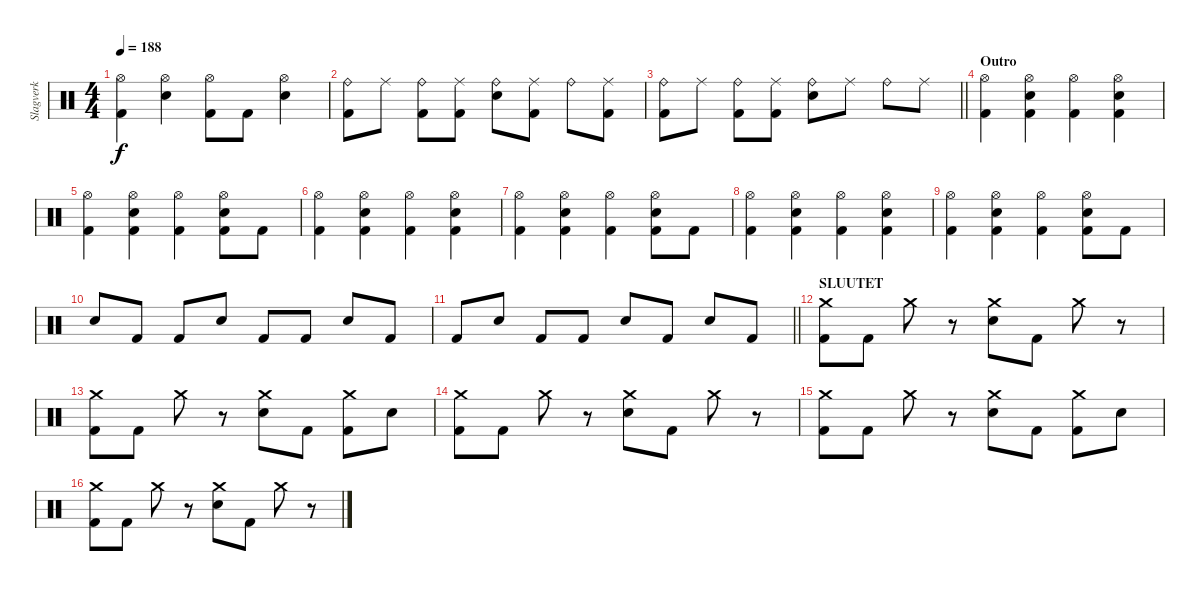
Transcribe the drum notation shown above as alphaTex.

\track ("Slagverk" "Slagverk") {instrument percussion}
\staff {score}
\articulation defaults
\ts (4 4)
\tempo 188
\clef neutral
\ks c
("Hi-Hat (open)" "Kick (hit) 2").4{dy f} ("Hi-Hat (open)" "Electric Snare (hit)").4 ("Hi-Hat (open)" "Kick (hit) 2").8 "Kick (hit) 2".8 ("Hi-Hat (open)" "Electric Snare (hit)").4 |
("Ride (bell)" "Kick (hit) 2").8 "Ride (middle)".8 ("Ride (bell)" "Kick (hit) 2").8 ("Ride (middle)" "Kick (hit) 2").8 ("Ride (bell)" "Electric Snare (hit)").8 ("Ride (middle)" "Kick (hit) 2").8 "Ride (bell)".8 ("Ride (middle)" "Kick (hit) 2").8 |
\barLineRight lightlight
("Ride (bell)" "Kick (hit) 2").8 "Ride (middle)".8 ("Ride (bell)" "Kick (hit) 2").8 ("Ride (middle)" "Kick (hit) 2").8 ("Ride (bell)" "Electric Snare (hit)").8 "Ride (middle)".8 "Ride (bell)".8 "Ride (middle)".8 |
\section ("" "Outro")
("Hi-Hat (open)" "Kick (hit) 2").4 ("Hi-Hat (open)" "Electric Snare (hit)" "Kick (hit) 2").4 ("Hi-Hat (open)" "Kick (hit) 2").4 ("Hi-Hat (open)" "Electric Snare (hit)" "Kick (hit) 2").4 |
("Hi-Hat (open)" "Kick (hit) 2").4 ("Hi-Hat (open)" "Electric Snare (hit)" "Kick (hit) 2").4 ("Hi-Hat (open)" "Kick (hit) 2").4 ("Hi-Hat (open)" "Electric Snare (hit)" "Kick (hit) 2").8 "Kick (hit) 2".8 |
("Hi-Hat (open)" "Kick (hit) 2").4 ("Hi-Hat (open)" "Electric Snare (hit)" "Kick (hit) 2").4 ("Hi-Hat (open)" "Kick (hit) 2").4 ("Hi-Hat (open)" "Electric Snare (hit)" "Kick (hit) 2").4 |
("Hi-Hat (open)" "Kick (hit) 2").4 ("Hi-Hat (open)" "Electric Snare (hit)" "Kick (hit) 2").4 ("Hi-Hat (open)" "Kick (hit) 2").4 ("Hi-Hat (open)" "Electric Snare (hit)" "Kick (hit) 2").8 "Kick (hit) 2".8 |
("Hi-Hat (open)" "Kick (hit) 2").4 ("Hi-Hat (open)" "Electric Snare (hit)" "Kick (hit) 2").4 ("Hi-Hat (open)" "Kick (hit) 2").4 ("Hi-Hat (open)" "Electric Snare (hit)" "Kick (hit) 2").4 |
("Hi-Hat (open)" "Kick (hit) 2").4 ("Hi-Hat (open)" "Electric Snare (hit)" "Kick (hit) 2").4 ("Hi-Hat (open)" "Kick (hit) 2").4 ("Hi-Hat (open)" "Electric Snare (hit)" "Kick (hit) 2").8 "Kick (hit) 2".8 |
"Electric Snare (hit)".8 "Kick (hit) 2".8 "Kick (hit) 2".8 "Electric Snare (hit)".8 "Kick (hit) 2".8 "Kick (hit) 2".8 "Electric Snare (hit)".8 "Kick (hit) 2".8 |
\barLineRight lightlight "Kick (hit) 2".8 "Electric Snare (hit)".8 "Kick (hit) 2".8 "Kick (hit) 2".8 "Electric Snare (hit)".8 "Kick (hit) 2".8 "Electric Snare (hit)".8 "Kick (hit) 2".8
|
\section ("" "SLUUTET")
("Crash medium (hit)" "Kick (hit) 2").8 "Kick (hit) 2".8 "Crash medium (hit)".8 r.8 ("Crash medium (hit)" "Electric Snare (hit)").8 "Kick (hit) 2".8 "Crash medium (hit)".8 r.8 |
("Crash medium (hit)" "Kick (hit) 2").8 "Kick (hit) 2".8 "Crash medium (hit)".8 r.8 ("Crash medium (hit)" "Electric Snare (hit)").8 "Kick (hit) 2".8 ("Crash medium (hit)" "Kick (hit) 2").8 "Electric Snare (hit)".8 |
("Crash medium (hit)" "Kick (hit) 2").8 "Kick (hit) 2".8 "Crash medium (hit)".8 r.8 ("Crash medium (hit)" "Electric Snare (hit)").8 "Kick (hit) 2".8 "Crash medium (hit)".8 r.8 |
("Crash medium (hit)" "Kick (hit) 2").8 "Kick (hit) 2".8 "Crash medium (hit)".8 r.8 ("Crash medium (hit)" "Electric Snare (hit)").8 "Kick (hit) 2".8 ("Crash medium (hit)" "Kick (hit) 2").8 "Electric Snare (hit)".8 |
("Crash medium (hit)" "Kick (hit) 2").8 "Kick (hit) 2".8 "Crash medium (hit)".8 r.8 ("Crash medium (hit)" "Electric Snare (hit)").8 "Kick (hit) 2".8 "Crash medium (hit)".8 r.8
